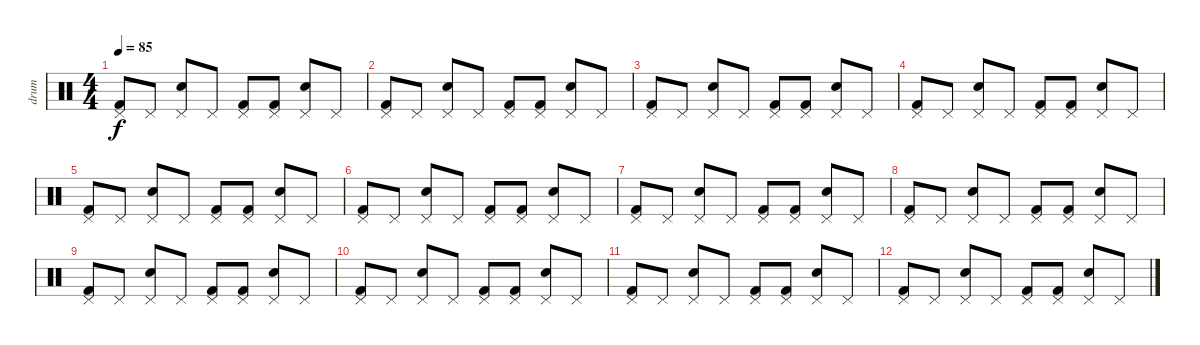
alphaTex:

\track ("drum" "drum") {instrument percussion}
\staff {score}
\articulation defaults
\ts (4 4)
\tempo 85
\clef neutral
\ks c
("Pedal Hi-Hat (hit)" "Kick (hit) 2").8{dy f} "Pedal Hi-Hat (hit)".8 ("Pedal Hi-Hat (hit)" "Snare (hit) 2").8 "Pedal Hi-Hat (hit)".8 ("Pedal Hi-Hat (hit)" "Kick (hit) 2").8 ("Pedal Hi-Hat (hit)" "Kick (hit) 2").8 ("Pedal Hi-Hat (hit)" "Snare (hit) 2").8 "Pedal Hi-Hat (hit)".8 |
("Pedal Hi-Hat (hit)" "Kick (hit) 2").8 "Pedal Hi-Hat (hit)".8 ("Pedal Hi-Hat (hit)" "Snare (hit) 2").8 "Pedal Hi-Hat (hit)".8 ("Pedal Hi-Hat (hit)" "Kick (hit) 2").8 ("Pedal Hi-Hat (hit)" "Kick (hit) 2").8 ("Pedal Hi-Hat (hit)" "Snare (hit) 2").8 "Pedal Hi-Hat (hit)".8 |
("Pedal Hi-Hat (hit)" "Kick (hit) 2").8 "Pedal Hi-Hat (hit)".8 ("Pedal Hi-Hat (hit)" "Snare (hit) 2").8 "Pedal Hi-Hat (hit)".8 ("Pedal Hi-Hat (hit)" "Kick (hit) 2").8 ("Pedal Hi-Hat (hit)" "Kick (hit) 2").8 ("Pedal Hi-Hat (hit)" "Snare (hit) 2").8 "Pedal Hi-Hat (hit)".8 |
("Pedal Hi-Hat (hit)" "Kick (hit) 2").8 "Pedal Hi-Hat (hit)".8 ("Pedal Hi-Hat (hit)" "Snare (hit) 2").8 "Pedal Hi-Hat (hit)".8 ("Pedal Hi-Hat (hit)" "Kick (hit) 2").8 ("Pedal Hi-Hat (hit)" "Kick (hit) 2").8 ("Pedal Hi-Hat (hit)" "Snare (hit) 2").8 "Pedal Hi-Hat (hit)".8 |
("Pedal Hi-Hat (hit)" "Kick (hit) 2").8 "Pedal Hi-Hat (hit)".8 ("Pedal Hi-Hat (hit)" "Snare (hit) 2").8 "Pedal Hi-Hat (hit)".8 ("Pedal Hi-Hat (hit)" "Kick (hit) 2").8 ("Pedal Hi-Hat (hit)" "Kick (hit) 2").8 ("Pedal Hi-Hat (hit)" "Snare (hit) 2").8 "Pedal Hi-Hat (hit)".8 |
("Pedal Hi-Hat (hit)" "Kick (hit) 2").8 "Pedal Hi-Hat (hit)".8 ("Pedal Hi-Hat (hit)" "Snare (hit) 2").8 "Pedal Hi-Hat (hit)".8 ("Pedal Hi-Hat (hit)" "Kick (hit) 2").8 ("Pedal Hi-Hat (hit)" "Kick (hit) 2").8 ("Pedal Hi-Hat (hit)" "Snare (hit) 2").8 "Pedal Hi-Hat (hit)".8 |
("Pedal Hi-Hat (hit)" "Kick (hit) 2").8 "Pedal Hi-Hat (hit)".8 ("Pedal Hi-Hat (hit)" "Snare (hit) 2").8 "Pedal Hi-Hat (hit)".8 ("Pedal Hi-Hat (hit)" "Kick (hit) 2").8 ("Pedal Hi-Hat (hit)" "Kick (hit) 2").8 ("Pedal Hi-Hat (hit)" "Snare (hit) 2").8 "Pedal Hi-Hat (hit)".8 |
("Pedal Hi-Hat (hit)" "Kick (hit) 2").8 "Pedal Hi-Hat (hit)".8 ("Pedal Hi-Hat (hit)" "Snare (hit) 2").8 "Pedal Hi-Hat (hit)".8 ("Pedal Hi-Hat (hit)" "Kick (hit) 2").8 ("Pedal Hi-Hat (hit)" "Kick (hit) 2").8 ("Pedal Hi-Hat (hit)" "Snare (hit) 2").8 "Pedal Hi-Hat (hit)".8 |
("Pedal Hi-Hat (hit)" "Kick (hit) 2").8 "Pedal Hi-Hat (hit)".8 ("Pedal Hi-Hat (hit)" "Snare (hit) 2").8 "Pedal Hi-Hat (hit)".8 ("Pedal Hi-Hat (hit)" "Kick (hit) 2").8 ("Pedal Hi-Hat (hit)" "Kick (hit) 2").8 ("Pedal Hi-Hat (hit)" "Snare (hit) 2").8 "Pedal Hi-Hat (hit)".8 |
("Pedal Hi-Hat (hit)" "Kick (hit) 2").8 "Pedal Hi-Hat (hit)".8 ("Pedal Hi-Hat (hit)" "Snare (hit) 2").8 "Pedal Hi-Hat (hit)".8 ("Pedal Hi-Hat (hit)" "Kick (hit) 2").8 ("Pedal Hi-Hat (hit)" "Kick (hit) 2").8 ("Pedal Hi-Hat (hit)" "Snare (hit) 2").8 "Pedal Hi-Hat (hit)".8 |
("Pedal Hi-Hat (hit)" "Kick (hit) 2").8 "Pedal Hi-Hat (hit)".8 ("Pedal Hi-Hat (hit)" "Snare (hit) 2").8 "Pedal Hi-Hat (hit)".8 ("Pedal Hi-Hat (hit)" "Kick (hit) 2").8 ("Pedal Hi-Hat (hit)" "Kick (hit) 2").8 ("Pedal Hi-Hat (hit)" "Snare (hit) 2").8 "Pedal Hi-Hat (hit)".8 |
("Pedal Hi-Hat (hit)" "Kick (hit) 2").8 "Pedal Hi-Hat (hit)".8 ("Pedal Hi-Hat (hit)" "Snare (hit) 2").8 "Pedal Hi-Hat (hit)".8 ("Pedal Hi-Hat (hit)" "Kick (hit) 2").8 ("Pedal Hi-Hat (hit)" "Kick (hit) 2").8 ("Pedal Hi-Hat (hit)" "Snare (hit) 2").8 "Pedal Hi-Hat (hit)".8
